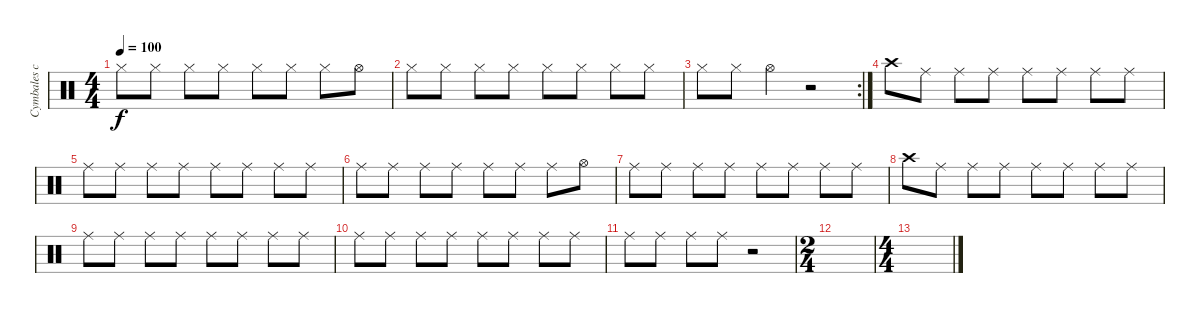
\track ("Cymbales charlestone" "Cymbales c") {instrument percussion}
\staff {score}
\articulation defaults
\ts (4 4)
\tempo 100
\clef neutral
\ks c "Hi-Hat (closed)".8{dy f} "Hi-Hat (closed)".8 "Hi-Hat (closed)".8 "Hi-Hat (closed)".8 "Hi-Hat (closed)".8 "Hi-Hat (closed)".8 "Hi-Hat (closed)".8 "Hi-Hat (open)".8
|
"Hi-Hat (closed)".8 "Hi-Hat (closed)".8 "Hi-Hat (closed)".8 "Hi-Hat (closed)".8 "Hi-Hat (closed)".8 "Hi-Hat (closed)".8 "Hi-Hat (closed)".8 "Hi-Hat (closed)".8 |
\rc 2 "Hi-Hat (closed)".8 "Hi-Hat (closed)".8 "Hi-Hat (open)".4
r.2 |
"Crash high (hit)".8 "Ride (middle)".8 "Ride (middle)".8 "Ride (middle)".8 "Ride (middle)".8 "Ride (middle)".8 "Ride (middle)".8 "Ride (middle)".8 |
"Ride (middle)".8 "Ride (middle)".8 "Ride (middle)".8 "Ride (middle)".8 "Ride (middle)".8 "Ride (middle)".8 "Ride (middle)".8 "Ride (middle)".8 |
"Ride (middle)".8 "Ride (middle)".8 "Ride (middle)".8 "Ride (middle)".8 "Ride (middle)".8 "Ride (middle)".8 "Ride (middle)".8 "Hi-Hat (open)".8 |
"Ride (middle)".8 "Ride (middle)".8 "Ride (middle)".8 "Ride (middle)".8 "Ride (middle)".8 "Ride (middle)".8 "Ride (middle)".8 "Ride (middle)".8 |
"Crash high (hit)".8 "Ride (middle)".8 "Ride (middle)".8 "Ride (middle)".8 "Ride (middle)".8 "Ride (middle)".8 "Ride (middle)".8 "Ride (middle)".8 |
"Ride (middle)".8 "Ride (middle)".8 "Ride (middle)".8 "Ride (middle)".8 "Ride (middle)".8 "Ride (middle)".8 "Ride (middle)".8 "Ride (middle)".8 |
"Ride (middle)".8 "Ride (middle)".8 "Ride (middle)".8 "Ride (middle)".8 "Ride (middle)".8 "Ride (middle)".8 "Ride (middle)".8 "Ride (middle)".8 |
"Ride (middle)".8 "Ride (middle)".8 "Ride (middle)".8 "Ride (middle)".8 r.2 |
\ts (2 4)
|
\ts (4 4)
